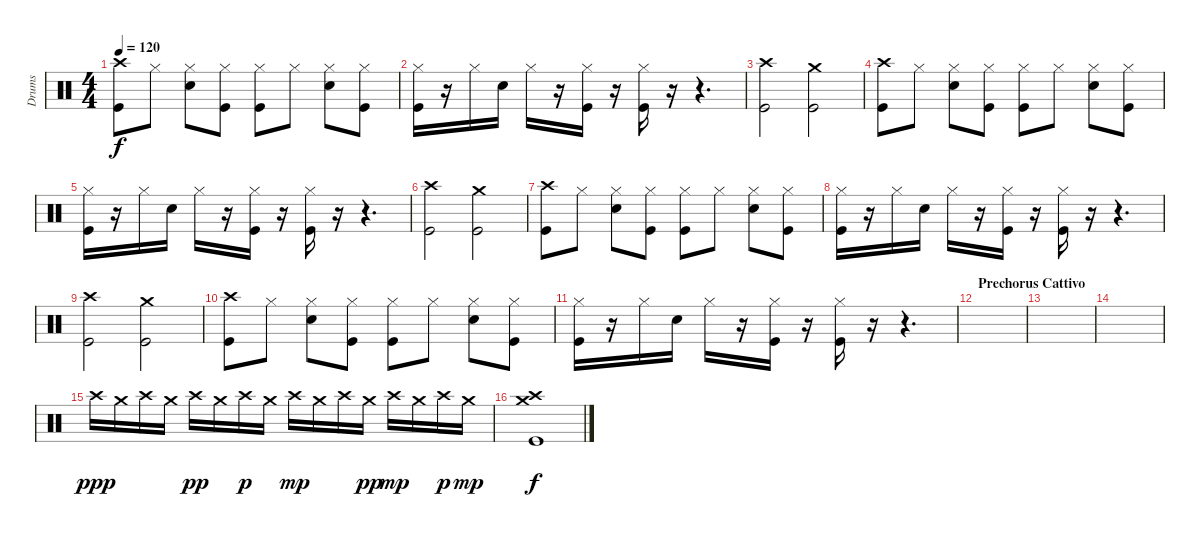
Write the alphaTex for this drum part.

\track ("Drums" "Drums") {instrument percussion}
\staff {score}
\articulation defaults
\ts (4 4)
\tempo 120
\clef neutral
\ks c
("Crash high (hit)" "Kick (hit)").8{dy f} "Hi-Hat (closed)".8 ("Electric Snare (hit)" "Hi-Hat (closed)").8 ("Hi-Hat (closed)" "Kick (hit)").8 ("Hi-Hat (closed)" "Kick (hit)").8 "Hi-Hat (closed)".8 ("Electric Snare (hit)" "Hi-Hat (closed)").8 ("Hi-Hat (closed)" "Kick (hit)").8 |
("Hi-Hat (closed)" "Kick (hit)").16 r.16 "Hi-Hat (closed)".16 "Electric Snare (hit)".16 "Hi-Hat (closed)".16 r.16 ("Hi-Hat (closed)" "Kick (hit)").16 r.16 ("Hi-Hat (closed)" "Kick (hit)").16 r.16 r.4{d} |
("Crash high (hit)" "Kick (hit)").2 ("Crash medium (hit)" "Kick (hit)").2 |
("Crash high (hit)" "Kick (hit)").8 "Hi-Hat (closed)".8 ("Electric Snare (hit)" "Hi-Hat (closed)").8 ("Hi-Hat (closed)" "Kick (hit)").8 ("Hi-Hat (closed)" "Kick (hit)").8 "Hi-Hat (closed)".8 ("Electric Snare (hit)" "Hi-Hat (closed)").8 ("Hi-Hat (closed)" "Kick (hit)").8 |
("Hi-Hat (closed)" "Kick (hit)").16 r.16 "Hi-Hat (closed)".16 "Electric Snare (hit)".16 "Hi-Hat (closed)".16 r.16 ("Hi-Hat (closed)" "Kick (hit)").16 r.16 ("Hi-Hat (closed)" "Kick (hit)").16 r.16 r.4{d} |
("Crash high (hit)" "Kick (hit)").2 ("Crash medium (hit)" "Kick (hit)").2 |
("Crash high (hit)" "Kick (hit)").8 "Hi-Hat (closed)".8 ("Electric Snare (hit)" "Hi-Hat (closed)").8 ("Hi-Hat (closed)" "Kick (hit)").8 ("Hi-Hat (closed)" "Kick (hit)").8 "Hi-Hat (closed)".8 ("Electric Snare (hit)" "Hi-Hat (closed)").8 ("Hi-Hat (closed)" "Kick (hit)").8 |
("Hi-Hat (closed)" "Kick (hit)").16 r.16 "Hi-Hat (closed)".16 "Electric Snare (hit)".16 "Hi-Hat (closed)".16 r.16 ("Hi-Hat (closed)" "Kick (hit)").16 r.16 ("Hi-Hat (closed)" "Kick (hit)").16 r.16 r.4{d} |
("Crash high (hit)" "Kick (hit)").2 ("Crash medium (hit)" "Kick (hit)").2 |
("Crash high (hit)" "Kick (hit)").8 "Hi-Hat (closed)".8 ("Electric Snare (hit)" "Hi-Hat (closed)").8 ("Hi-Hat (closed)" "Kick (hit)").8 ("Hi-Hat (closed)" "Kick (hit)").8 "Hi-Hat (closed)".8 ("Electric Snare (hit)" "Hi-Hat (closed)").8 ("Hi-Hat (closed)" "Kick (hit)").8 |
("Hi-Hat (closed)" "Kick (hit)").16 r.16 "Hi-Hat (closed)".16 "Electric Snare (hit)".16 "Hi-Hat (closed)".16 r.16 ("Hi-Hat (closed)" "Kick (hit)").16 r.16 ("Hi-Hat (closed)" "Kick (hit)").16 r.16 r.4{d} |
\section ("" "Prechorus Cattivo")
|
|
|
"Crash high (hit)".16{dy ppp} "Crash medium (hit)".16 "Crash high (hit)".16 "Crash medium (hit)".16 "Crash high (hit)".16{dy pp} "Crash medium (hit)".16 "Crash high (hit)".16{dy p} "Crash medium (hit)".16 "Crash high (hit)".16{dy mp} "Crash medium (hit)".16 "Crash high (hit)".16 "Crash medium (hit)".16{dy pp} "Crash high (hit)".16{dy mp} "Crash medium (hit)".16 "Crash high (hit)".16{dy p} "Crash medium (hit)".16{dy mp} |
("Crash medium (hit)" "Crash high (hit)" "Kick (hit)").1{dy f}
